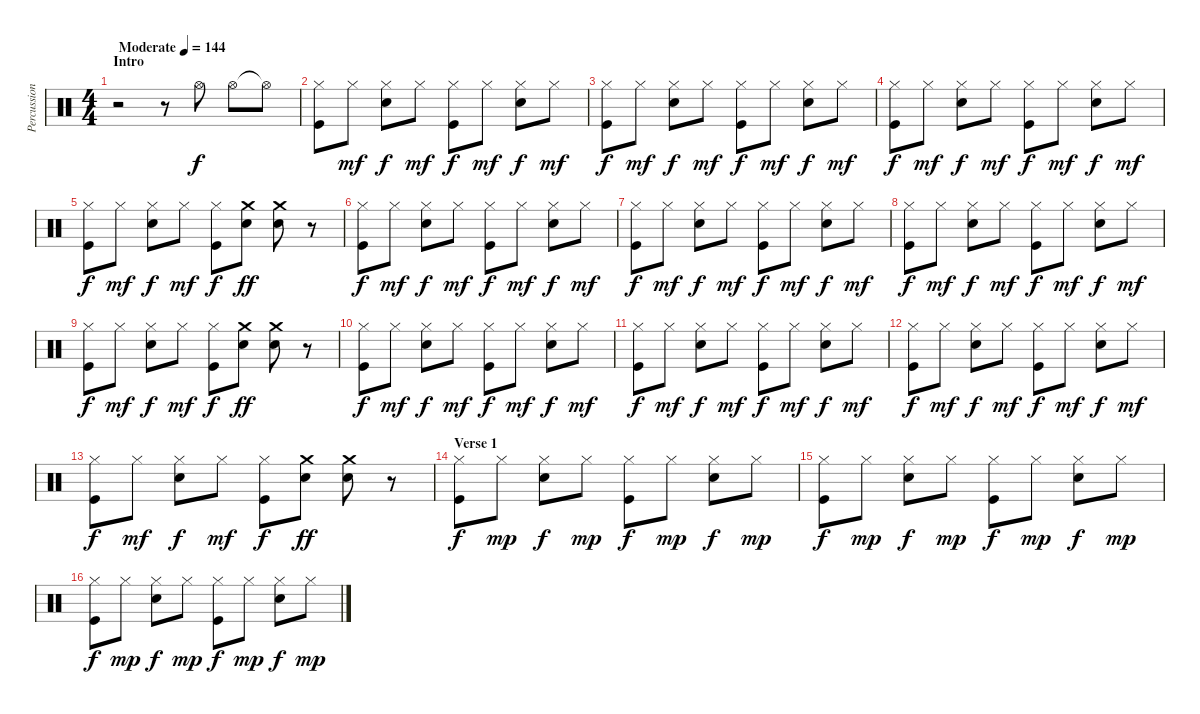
\track ("Percussions" "Percussion") {instrument percussion}
\staff {score}
\articulation defaults
\ts (4 4)
\section ("" "Intro")
\tempo (144 "Moderate")
\clef neutral
\ks c
r.2{dy f} r.8 "Hi-Hat (open)".8 "Hi-Hat (open)".8 "Hi-Hat (open)"{t}.8 |
("Hi-Hat (closed)" "Kick (hit)").8 "Hi-Hat (closed)".8{dy mf} ("Hi-Hat (closed)" "Snare (hit) 2").8{dy f} "Hi-Hat (closed)".8{dy mf} ("Hi-Hat (closed)" "Kick (hit)").8{dy f} "Hi-Hat (closed)".8{dy mf} ("Hi-Hat (closed)" "Snare (hit) 2").8{dy f} "Hi-Hat (closed)".8{dy mf} |
("Hi-Hat (closed)" "Kick (hit)").8{dy f} "Hi-Hat (closed)".8{dy mf} ("Hi-Hat (closed)" "Snare (hit) 2").8{dy f} "Hi-Hat (closed)".8{dy mf} ("Hi-Hat (closed)" "Kick (hit)").8{dy f} "Hi-Hat (closed)".8{dy mf} ("Hi-Hat (closed)" "Snare (hit) 2").8{dy f} "Hi-Hat (closed)".8{dy mf} |
("Hi-Hat (closed)" "Kick (hit)").8{dy f} "Hi-Hat (closed)".8{dy mf} ("Hi-Hat (closed)" "Snare (hit) 2").8{dy f} "Hi-Hat (closed)".8{dy mf} ("Hi-Hat (closed)" "Kick (hit)").8{dy f} "Hi-Hat (closed)".8{dy mf} ("Hi-Hat (closed)" "Snare (hit) 2").8{dy f} "Hi-Hat (closed)".8{dy mf} |
("Hi-Hat (closed)" "Kick (hit)").8{dy f} "Hi-Hat (closed)".8{dy mf} ("Hi-Hat (closed)" "Snare (hit) 2").8{dy f} "Hi-Hat (closed)".8{dy mf} ("Hi-Hat (closed)" "Kick (hit)").8{dy f} ("Crash medium (hit)" "Snare (hit) 2").8{dy ff} ("Crash medium (hit)" "Snare (hit) 2").8 r.8 |
("Hi-Hat (closed)" "Kick (hit)").8{dy f} "Hi-Hat (closed)".8{dy mf} ("Hi-Hat (closed)" "Snare (hit) 2").8{dy f} "Hi-Hat (closed)".8{dy mf} ("Hi-Hat (closed)" "Kick (hit)").8{dy f} "Hi-Hat (closed)".8{dy mf} ("Hi-Hat (closed)" "Snare (hit) 2").8{dy f} "Hi-Hat (closed)".8{dy mf} |
("Hi-Hat (closed)" "Kick (hit)").8{dy f} "Hi-Hat (closed)".8{dy mf} ("Hi-Hat (closed)" "Snare (hit) 2").8{dy f} "Hi-Hat (closed)".8{dy mf} ("Hi-Hat (closed)" "Kick (hit)").8{dy f} "Hi-Hat (closed)".8{dy mf} ("Hi-Hat (closed)" "Snare (hit) 2").8{dy f} "Hi-Hat (closed)".8{dy mf} |
("Hi-Hat (closed)" "Kick (hit)").8{dy f} "Hi-Hat (closed)".8{dy mf} ("Hi-Hat (closed)" "Snare (hit) 2").8{dy f} "Hi-Hat (closed)".8{dy mf} ("Hi-Hat (closed)" "Kick (hit)").8{dy f} "Hi-Hat (closed)".8{dy mf} ("Hi-Hat (closed)" "Snare (hit) 2").8{dy f} "Hi-Hat (closed)".8{dy mf} |
("Hi-Hat (closed)" "Kick (hit)").8{dy f} "Hi-Hat (closed)".8{dy mf} ("Hi-Hat (closed)" "Snare (hit) 2").8{dy f} "Hi-Hat (closed)".8{dy mf} ("Hi-Hat (closed)" "Kick (hit)").8{dy f} ("Crash medium (hit)" "Snare (hit) 2").8{dy ff} ("Crash medium (hit)" "Snare (hit) 2").8 r.8 |
("Hi-Hat (closed)" "Kick (hit)").8{dy f} "Hi-Hat (closed)".8{dy mf} ("Hi-Hat (closed)" "Snare (hit) 2").8{dy f} "Hi-Hat (closed)".8{dy mf} ("Hi-Hat (closed)" "Kick (hit)").8{dy f} "Hi-Hat (closed)".8{dy mf} ("Hi-Hat (closed)" "Snare (hit) 2").8{dy f} "Hi-Hat (closed)".8{dy mf} |
("Hi-Hat (closed)" "Kick (hit)").8{dy f} "Hi-Hat (closed)".8{dy mf} ("Hi-Hat (closed)" "Snare (hit) 2").8{dy f} "Hi-Hat (closed)".8{dy mf} ("Hi-Hat (closed)" "Kick (hit)").8{dy f} "Hi-Hat (closed)".8{dy mf} ("Hi-Hat (closed)" "Snare (hit) 2").8{dy f} "Hi-Hat (closed)".8{dy mf} |
("Hi-Hat (closed)" "Kick (hit)").8{dy f} "Hi-Hat (closed)".8{dy mf} ("Hi-Hat (closed)" "Snare (hit) 2").8{dy f} "Hi-Hat (closed)".8{dy mf} ("Hi-Hat (closed)" "Kick (hit)").8{dy f} "Hi-Hat (closed)".8{dy mf} ("Hi-Hat (closed)" "Snare (hit) 2").8{dy f} "Hi-Hat (closed)".8{dy mf} |
("Hi-Hat (closed)" "Kick (hit)").8{dy f} "Hi-Hat (closed)".8{dy mf} ("Hi-Hat (closed)" "Snare (hit) 2").8{dy f} "Hi-Hat (closed)".8{dy mf} ("Hi-Hat (closed)" "Kick (hit)").8{dy f} ("Crash medium (hit)" "Snare (hit) 2").8{dy ff} ("Crash medium (hit)" "Snare (hit) 2").8 r.8 |
\section ("" "Verse 1")
("Hi-Hat (closed)" "Kick (hit)").8{dy f} "Hi-Hat (closed)".8{dy mp} ("Hi-Hat (closed)" "Snare (hit) 2").8{dy f} "Hi-Hat (closed)".8{dy mp} ("Hi-Hat (closed)" "Kick (hit)").8{dy f} "Hi-Hat (closed)".8{dy mp} ("Hi-Hat (closed)" "Snare (hit) 2").8{dy f} "Hi-Hat (closed)".8{dy mp} |
("Hi-Hat (closed)" "Kick (hit)").8{dy f} "Hi-Hat (closed)".8{dy mp} ("Hi-Hat (closed)" "Snare (hit) 2").8{dy f} "Hi-Hat (closed)".8{dy mp} ("Hi-Hat (closed)" "Kick (hit)").8{dy f} "Hi-Hat (closed)".8{dy mp} ("Hi-Hat (closed)" "Snare (hit) 2").8{dy f} "Hi-Hat (closed)".8{dy mp} |
("Hi-Hat (closed)" "Kick (hit)").8{dy f} "Hi-Hat (closed)".8{dy mp} ("Hi-Hat (closed)" "Snare (hit) 2").8{dy f} "Hi-Hat (closed)".8{dy mp} ("Hi-Hat (closed)" "Kick (hit)").8{dy f} "Hi-Hat (closed)".8{dy mp} ("Hi-Hat (closed)" "Snare (hit) 2").8{dy f} "Hi-Hat (closed)".8{dy mp}
